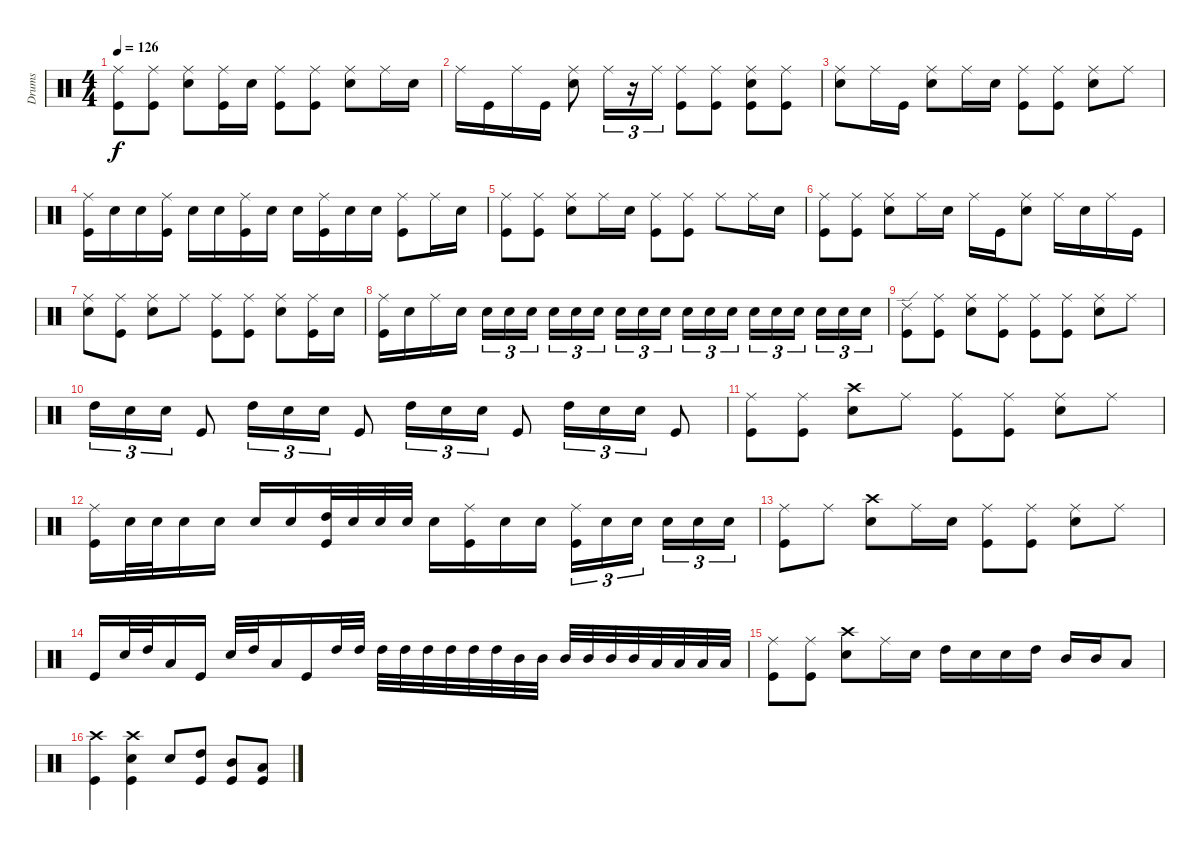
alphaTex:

\track ("Drums" "Drums") {instrument percussion}
\staff {score}
\articulation defaults
\ts (4 4)
\tempo 126
\clef neutral
\ks c
("Ride (middle)" "Kick (hit)").8{dy f} ("Ride (middle)" "Kick (hit)").8 ("Ride (middle)" "Electric Snare (hit)").8 ("Ride (middle)" "Kick (hit)").16 "Electric Snare (hit)".16 ("Ride (middle)" "Kick (hit)").8 ("Ride (middle)" "Kick (hit)").8 ("Ride (middle)" "Electric Snare (hit)").8 "Ride (middle)".16 "Electric Snare (hit)".16 |
"Ride (middle)".16 "Kick (hit)".16 "Ride (middle)".16 "Kick (hit)".16 ("Ride (middle)" "Electric Snare (hit)").8 "Ride (middle)".16{tu (3 2)} r.16{tu (3 2)} "Ride (middle)".16{tu (3 2)} ("Ride (middle)" "Kick (hit)").8 ("Ride (middle)" "Kick (hit)").8 ("Ride (middle)" "Electric Snare (hit)" "Kick (hit)").8 ("Ride (middle)" "Kick (hit)").8 |
("Ride (middle)" "Electric Snare (hit)").8 "Ride (middle)".16 "Kick (hit)".16 ("Ride (middle)" "Electric Snare (hit)").8 "Ride (middle)".16 "Electric Snare (hit)".16 ("Ride (middle)" "Kick (hit)").8 ("Ride (middle)" "Kick (hit)").8 ("Ride (middle)" "Electric Snare (hit)").8 "Ride (middle)".8 |
("Ride (middle)" "Kick (hit)").16 "Electric Snare (hit)".16 "Electric Snare (hit)".16 ("Ride (middle)" "Kick (hit)").16 "Electric Snare (hit)".16 "Electric Snare (hit)".16 ("Ride (middle)" "Kick (hit)").16 "Electric Snare (hit)".16 "Electric Snare (hit)".16 ("Ride (middle)" "Kick (hit)").16 "Electric Snare (hit)".16 "Electric Snare (hit)".16 ("Ride (middle)" "Kick (hit)").8 "Ride (middle)".16 "Electric Snare (hit)".16 |
("Ride (middle)" "Kick (hit)").8 ("Ride (middle)" "Kick (hit)").8 ("Ride (middle)" "Electric Snare (hit)").8 "Ride (middle)".16 "Electric Snare (hit)".16 ("Ride (middle)" "Kick (hit)").8 ("Ride (middle)" "Kick (hit)").8 "Ride (middle)".8 "Ride (middle)".16 "Electric Snare (hit)".16 |
("Ride (middle)" "Kick (hit)").8 ("Ride (middle)" "Kick (hit)").8 ("Ride (middle)" "Electric Snare (hit)").8 "Ride (middle)".16 "Electric Snare (hit)".16 "Ride (middle)".16 "Kick (hit)".16 ("Ride (middle)" "Electric Snare (hit)").8 "Ride (middle)".16 "Electric Snare (hit)".16 "Ride (middle)".16 "Kick (hit)".16 |
("Ride (middle)" "Electric Snare (hit)").8 ("Ride (middle)" "Kick (hit)").8 ("Ride (middle)" "Electric Snare (hit)").8 "Ride (middle)".8 ("Ride (middle)" "Kick (hit)").8 ("Ride (middle)" "Kick (hit)").8 ("Ride (middle)" "Electric Snare (hit)").8 ("Ride (middle)" "Kick (hit)").16 "Electric Snare (hit)".16 |
("Ride (middle)" "Kick (hit)").16 "Electric Snare (hit)".16 "Ride (middle)".16 "Electric Snare (hit)".16 "Electric Snare (hit)".16{tu (3 2)} "Electric Snare (hit)".16{tu (3 2)} "Electric Snare (hit)".16{tu (3 2) beam splitsecondary} "Electric Snare (hit)".16{tu (3 2)} "Electric Snare (hit)".16{tu (3 2)} "Electric Snare (hit)".16{tu (3 2)} "Electric Snare (hit)".16{tu (3 2)} "Electric Snare (hit)".16{tu (3 2)} "Electric Snare (hit)".16{tu (3 2) beam splitsecondary} "Electric Snare (hit)".16{tu (3 2)} "Electric Snare (hit)".16{tu (3 2)} "Electric Snare (hit)".16{tu (3 2)} "Electric Snare (hit)".16{tu (3 2)} "Electric Snare (hit)".16{tu (3 2)} "Electric Snare (hit)".16{tu (3 2) beam splitsecondary} "Electric Snare (hit)".16{tu (3 2)} "Electric Snare (hit)".16{tu (3 2)} "Electric Snare (hit)".16{tu (3 2)} |
("Ride (edge) 2" "Kick (hit)").8 ("Ride (middle)" "Kick (hit)").8 ("Ride (middle)" "Electric Snare (hit)").8 ("Ride (middle)" "Kick (hit)").8 ("Ride (middle)" "Kick (hit)").8 ("Ride (middle)" "Kick (hit)").8 ("Ride (middle)" "Electric Snare (hit)").8 "Ride (middle)".8 |
"High Tom (hit)".16{tu (3 2)} "Electric Snare (hit)".16{tu (3 2)} "Electric Snare (hit)".16{tu (3 2)} "Kick (hit)".8 "High Tom (hit)".16{tu (3 2)} "Electric Snare (hit)".16{tu (3 2)} "Electric Snare (hit)".16{tu (3 2)} "Kick (hit)".8 "High Tom (hit)".16{tu (3 2)} "Electric Snare (hit)".16{tu (3 2)} "Electric Snare (hit)".16{tu (3 2)} "Kick (hit)".8 "High Tom (hit)".16{tu (3 2)} "Electric Snare (hit)".16{tu (3 2)} "Electric Snare (hit)".16{tu (3 2)} "Kick (hit)".8 |
("Ride (middle)" "Kick (hit)").8 ("Ride (middle)" "Kick (hit)").8 ("Crash high (hit)" "Electric Snare (hit)").8 "Ride (middle)".8 ("Ride (middle)" "Kick (hit)").8 ("Ride (middle)" "Kick (hit)").8 ("Ride (middle)" "Electric Snare (hit)").8 "Ride (middle)".8 |
("Ride (middle)" "Kick (hit)").16 "Electric Snare (hit)".32 "Electric Snare (hit)".32 "Electric Snare (hit)".16 "Electric Snare (hit)".16 "Electric Snare (hit)".16 "Electric Snare (hit)".16 ("High Tom (hit)" "Kick (hit)").32 "Electric Snare (hit)".32 "Electric Snare (hit)".32 "Electric Snare (hit)".32 "Electric Snare (hit)".16 ("Ride (middle)" "Kick (hit)").16 "Electric Snare (hit)".16 "Electric Snare (hit)".16 ("Ride (middle)" "Kick (hit)").16{tu (3 2)} "Electric Snare (hit)".16{tu (3 2)} "Electric Snare (hit)".16{tu (3 2) beam splitsecondary} "Electric Snare (hit)".16{tu (3 2)} "Electric Snare (hit)".16{tu (3 2)} "Electric Snare (hit)".16{tu (3 2)} |
("Ride (middle)" "Kick (hit)").8 "Ride (middle)".8 ("Crash high (hit)" "Electric Snare (hit)").8 "Ride (middle)".16 "Electric Snare (hit)".16 ("Ride (middle)" "Kick (hit)").8 ("Ride (middle)" "Kick (hit)").8 ("Ride (middle)" "Electric Snare (hit)").8 "Ride (middle)".8 |
"Kick (hit)".16 "Electric Snare (hit)".32 "High Tom (hit)".32 "Low Floor Tom (hit)".16 "Kick (hit)".16 "Electric Snare (hit)".32 "High Tom (hit)".32 "Low Floor Tom (hit)".16 "Kick (hit)".16 "High Tom (hit)".32 "High Tom (hit)".32 "High Tom (hit)".32 "High Tom (hit)".32 "High Tom (hit)".32 "High Tom (hit)".32 "High Tom (hit)".32 "High Tom (hit)".32 "Mid Tom (hit)".32 "Mid Tom (hit)".32 "Mid Tom (hit)".32 "Mid Tom (hit)".32 "Mid Tom (hit)".32 "Mid Tom (hit)".32 "Low Floor Tom (hit)".32 "Low Floor Tom (hit)".32 "Low Floor Tom (hit)".32 "Low Floor Tom (hit)".32 |
("Ride (middle)" "Kick (hit)").8 ("Ride (middle)" "Kick (hit)").8 ("Crash high (hit)" "Electric Snare (hit)").8 "Ride (middle)".16 "Electric Snare (hit)".16 "High Tom (hit)".16 "Electric Snare (hit)".16 "Electric Snare (hit)".16 "High Tom (hit)".16 "Mid Tom (hit)".16 "Mid Tom (hit)".16 "Low Floor Tom (hit)".8 |
("Crash high (hit)" "Kick (hit)").4 ("Crash high (hit)" "Electric Snare (hit)" "Kick (hit)").4 "Electric Snare (hit)".8 ("High Tom (hit)" "Kick (hit)").8 ("Mid Tom (hit)" "Kick (hit)").8 ("Low Floor Tom (hit)" "Kick (hit)").8
